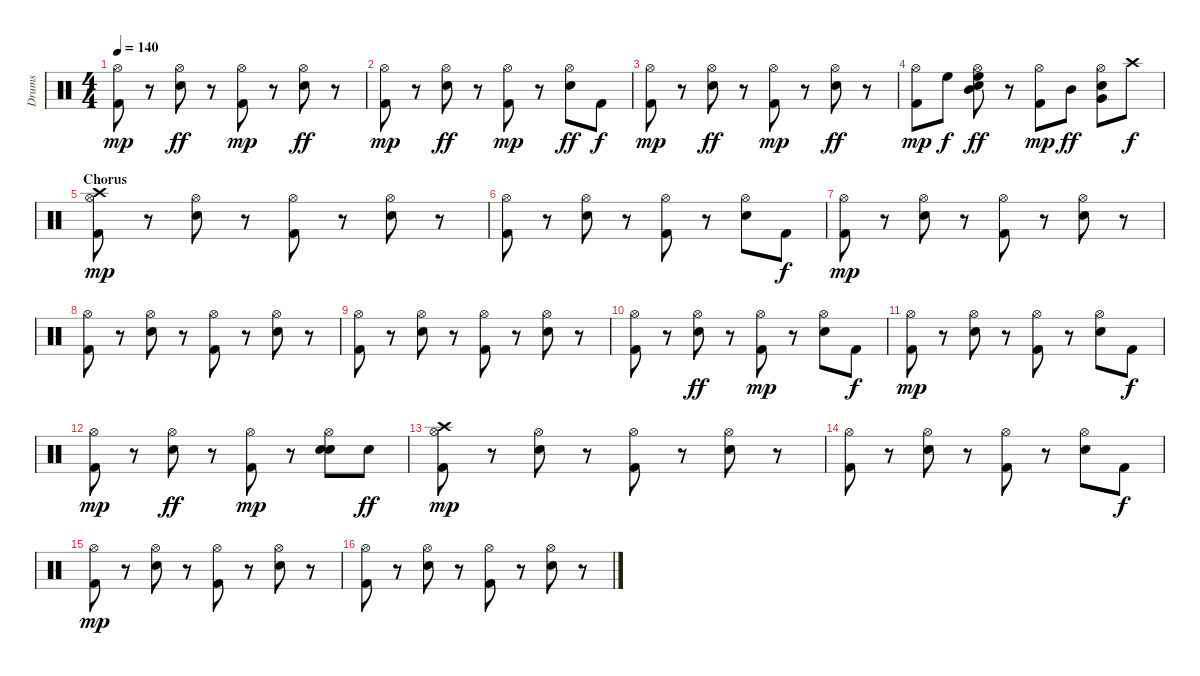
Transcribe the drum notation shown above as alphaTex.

\track ("Drums" "Drums") {instrument percussion}
\staff {score}
\articulation defaults
\ts (4 4)
\tempo 140
\clef neutral
\ks c
("Kick (hit) 2" "Hi-Hat (open)").8{dy mp} r.8 ("Hi-Hat (open)" "Snare (hit) 2").8{dy ff} r.8 ("Kick (hit) 2" "Hi-Hat (open)").8{dy mp} r.8 ("Hi-Hat (open)" "Snare (hit) 2").8{dy ff} r.8 |
("Kick (hit) 2" "Hi-Hat (open)").8{dy mp} r.8 ("Hi-Hat (open)" "Snare (hit) 2").8{dy ff} r.8 ("Kick (hit) 2" "Hi-Hat (open)").8{dy mp} r.8 ("Hi-Hat (open)" "Snare (hit) 2").8{dy ff} "Kick (hit) 2".8{dy f} |
("Kick (hit) 2" "Hi-Hat (open)").8{dy mp} r.8 ("Hi-Hat (open)" "Snare (hit) 2").8{dy ff} r.8 ("Kick (hit) 2" "Hi-Hat (open)").8{dy mp} r.8 ("Hi-Hat (open)" "Snare (hit) 2").8{dy ff} r.8 |
("Kick (hit) 2" "Hi-Hat (open)").8{dy mp} "High Floor Tom (hit)".8{dy f} ("Mid Tom (hit)" "Hi-Hat (open)" "Snare (hit) 2" "High Floor Tom (hit)").8{dy ff} r.8 ("Kick (hit) 2" "Hi-Hat (open)").8{dy mp} "Mid Tom (hit)".8{dy ff} ("Hi-Hat (open)" "Snare (hit) 2" "Very Low Tom (hit)").8 "Crash high (hit)".8{dy f} |
\section ("" "Chorus")
("Hi-Hat (open)" "Crash high (hit)" "Kick (hit) 2").8{dy mp} r.8 ("Snare (hit) 2" "Hi-Hat (open)").8 r.8 ("Kick (hit) 2" "Hi-Hat (open)").8 r.8 ("Snare (hit) 2" "Hi-Hat (open)").8 r.8 |
("Kick (hit) 2" "Hi-Hat (open)").8 r.8 ("Snare (hit) 2" "Hi-Hat (open)").8 r.8 ("Kick (hit) 2" "Hi-Hat (open)").8 r.8 ("Snare (hit) 2" "Hi-Hat (open)").8 "Kick (hit) 2".8{dy f} |
("Hi-Hat (open)" "Kick (hit) 2").8{dy mp} r.8 ("Snare (hit) 2" "Hi-Hat (open)").8 r.8 ("Kick (hit) 2" "Hi-Hat (open)").8 r.8 ("Snare (hit) 2" "Hi-Hat (open)").8 r.8 |
("Kick (hit) 2" "Hi-Hat (open)").8 r.8 ("Snare (hit) 2" "Hi-Hat (open)").8 r.8 ("Hi-Hat (open)" "Kick (hit) 2").8 r.8 ("Snare (hit) 2" "Hi-Hat (open)").8 r.8 |
("Kick (hit) 2" "Hi-Hat (open)").8 r.8 ("Snare (hit) 2" "Hi-Hat (open)").8 r.8 ("Kick (hit) 2" "Hi-Hat (open)").8 r.8 ("Snare (hit) 2" "Hi-Hat (open)").8 r.8 |
("Hi-Hat (open)" "Kick (hit) 2").8 r.8 ("Hi-Hat (open)" "Snare (hit) 2").8{dy ff} r.8 ("Hi-Hat (open)" "Kick (hit) 2").8{dy mp} r.8 ("Snare (hit) 2" "Hi-Hat (open)").8 "Kick (hit) 2".8{dy f} |
("Kick (hit) 2" "Hi-Hat (open)").8{dy mp} r.8 ("Snare (hit) 2" "Hi-Hat (open)").8 r.8 ("Kick (hit) 2" "Hi-Hat (open)").8 r.8 ("Snare (hit) 2" "Hi-Hat (open)").8 "Kick (hit) 2".8{dy f} |
("Kick (hit) 2" "Hi-Hat (open)").8{dy mp} r.8 ("Hi-Hat (open)" "Snare (hit) 2").8{dy ff} r.8 ("Hi-Hat (open)" "Kick (hit) 2").8{dy mp} r.8 ("Snare (hit) 2" "Snare (hit) 2" "Hi-Hat (open)").8 "Snare (hit) 2".8{dy ff} |
("Hi-Hat (open)" "Crash high (hit)" "Kick (hit) 2").8{dy mp} r.8 ("Snare (hit) 2" "Hi-Hat (open)").8 r.8 ("Kick (hit) 2" "Hi-Hat (open)").8 r.8 ("Snare (hit) 2" "Hi-Hat (open)").8 r.8 |
("Kick (hit) 2" "Hi-Hat (open)").8 r.8 ("Snare (hit) 2" "Hi-Hat (open)").8 r.8 ("Kick (hit) 2" "Hi-Hat (open)").8 r.8 ("Snare (hit) 2" "Hi-Hat (open)").8 "Kick (hit) 2".8{dy f} |
("Hi-Hat (open)" "Kick (hit) 2").8{dy mp} r.8 ("Snare (hit) 2" "Hi-Hat (open)").8 r.8 ("Kick (hit) 2" "Hi-Hat (open)").8 r.8 ("Snare (hit) 2" "Hi-Hat (open)").8 r.8 |
("Kick (hit) 2" "Hi-Hat (open)").8 r.8 ("Snare (hit) 2" "Hi-Hat (open)").8 r.8 ("Hi-Hat (open)" "Kick (hit) 2").8 r.8 ("Snare (hit) 2" "Hi-Hat (open)").8 r.8
